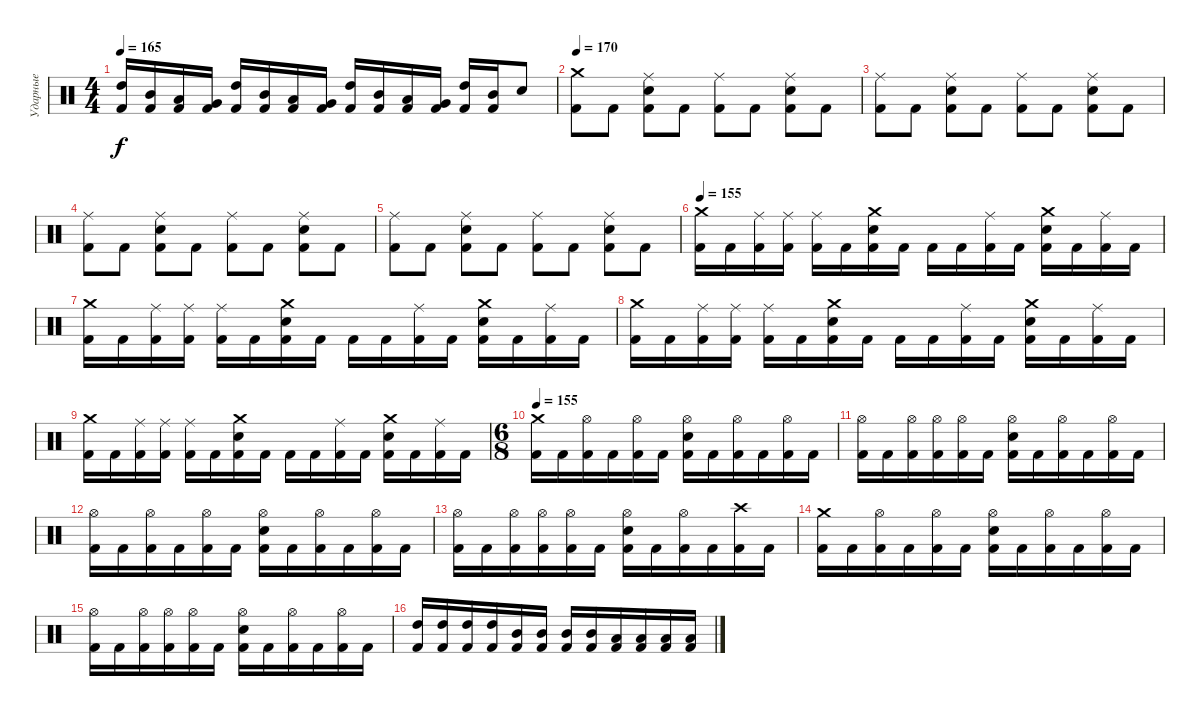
\track ("Ударные" "Ударные") {instrument percussion}
\staff {score}
\articulation defaults
\ts (4 4)
\tempo 165
\clef neutral
\ks c
("Kick (hit) 2" "High Tom (hit)").16{dy f} ("Kick (hit) 2" "Mid Tom (hit)").16 ("Kick (hit) 2" "Low Tom (hit)").16 ("Kick (hit) 2" "Very Low Tom (hit)").16 ("Kick (hit) 2" "High Tom (hit)").16 ("Kick (hit) 2" "Mid Tom (hit)").16 ("Kick (hit) 2" "Low Tom (hit)").16 ("Kick (hit) 2" "Very Low Tom (hit)").16 ("Kick (hit) 2" "High Tom (hit)").16 ("Kick (hit) 2" "Mid Tom (hit)").16 ("Kick (hit) 2" "Low Tom (hit)").16 ("Kick (hit) 2" "Very Low Tom (hit)").16 ("Kick (hit) 2" "High Tom (hit)").16 ("Kick (hit) 2" "Mid Tom (hit)").16 "Electric Snare (hit)".8 |
\tempo 170
("Kick (hit) 2" "Crash medium (hit)").8 "Kick (hit) 2".8 ("Kick (hit) 2" "Electric Snare (hit)" "Ride (middle)").8 "Kick (hit) 2".8 ("Kick (hit) 2" "Ride (middle)").8 "Kick (hit) 2".8 ("Kick (hit) 2" "Electric Snare (hit)" "Ride (middle)").8 "Kick (hit) 2".8 |
("Kick (hit) 2" "Ride (middle)").8 "Kick (hit) 2".8 ("Kick (hit) 2" "Electric Snare (hit)" "Ride (middle)").8 "Kick (hit) 2".8 ("Kick (hit) 2" "Ride (middle)").8 "Kick (hit) 2".8 ("Kick (hit) 2" "Electric Snare (hit)" "Ride (middle)").8 "Kick (hit) 2".8 |
("Kick (hit) 2" "Ride (middle)").8 "Kick (hit) 2".8 ("Kick (hit) 2" "Electric Snare (hit)" "Ride (middle)").8 "Kick (hit) 2".8 ("Kick (hit) 2" "Ride (middle)").8 "Kick (hit) 2".8 ("Kick (hit) 2" "Electric Snare (hit)" "Ride (middle)").8 "Kick (hit) 2".8 |
("Kick (hit) 2" "Ride (middle)").8 "Kick (hit) 2".8 ("Kick (hit) 2" "Electric Snare (hit)" "Ride (middle)").8 "Kick (hit) 2".8 ("Kick (hit) 2" "Ride (middle)").8 "Kick (hit) 2".8 ("Kick (hit) 2" "Electric Snare (hit)" "Ride (middle)").8 "Kick (hit) 2".8 |
\tempo 155
("Kick (hit) 2" "Crash medium (hit)").16 "Kick (hit) 2".16 ("Kick (hit) 2" "Ride (middle)").16 ("Kick (hit) 2" "Ride (middle)").16 ("Kick (hit) 2" "Ride (middle)").16 "Kick (hit) 2".16 ("Kick (hit) 2" "Electric Snare (hit)" "Crash medium (hit)").16 "Kick (hit) 2".16 "Kick (hit) 2".16 "Kick (hit) 2".16 ("Kick (hit) 2" "Ride (middle)").16 "Kick (hit) 2".16 ("Kick (hit) 2" "Electric Snare (hit)" "Crash medium (hit)").16 "Kick (hit) 2".16 ("Kick (hit) 2" "Ride (middle)").16 "Kick (hit) 2".16 |
("Kick (hit) 2" "Crash medium (hit)").16 "Kick (hit) 2".16 ("Kick (hit) 2" "Ride (middle)").16 ("Kick (hit) 2" "Ride (middle)").16 ("Kick (hit) 2" "Ride (middle)").16 "Kick (hit) 2".16 ("Kick (hit) 2" "Electric Snare (hit)" "Crash medium (hit)").16 "Kick (hit) 2".16 "Kick (hit) 2".16 "Kick (hit) 2".16 ("Kick (hit) 2" "Ride (middle)").16 "Kick (hit) 2".16 ("Kick (hit) 2" "Electric Snare (hit)" "Crash medium (hit)").16 "Kick (hit) 2".16 ("Kick (hit) 2" "Ride (middle)").16 "Kick (hit) 2".16 |
("Kick (hit) 2" "Crash medium (hit)").16 "Kick (hit) 2".16 ("Kick (hit) 2" "Ride (middle)").16 ("Kick (hit) 2" "Ride (middle)").16 ("Kick (hit) 2" "Ride (middle)").16 "Kick (hit) 2".16 ("Kick (hit) 2" "Electric Snare (hit)" "Crash medium (hit)").16 "Kick (hit) 2".16 "Kick (hit) 2".16 "Kick (hit) 2".16 ("Kick (hit) 2" "Ride (middle)").16 "Kick (hit) 2".16 ("Kick (hit) 2" "Electric Snare (hit)" "Crash medium (hit)").16 "Kick (hit) 2".16 ("Kick (hit) 2" "Ride (middle)").16 "Kick (hit) 2".16 |
("Kick (hit) 2" "Crash medium (hit)").16 "Kick (hit) 2".16 ("Kick (hit) 2" "Ride (middle)").16 ("Kick (hit) 2" "Ride (middle)").16 ("Kick (hit) 2" "Ride (middle)").16 "Kick (hit) 2".16 ("Kick (hit) 2" "Electric Snare (hit)" "Crash medium (hit)").16 "Kick (hit) 2".16 "Kick (hit) 2".16 "Kick (hit) 2".16 ("Kick (hit) 2" "Ride (middle)").16 "Kick (hit) 2".16 ("Kick (hit) 2" "Electric Snare (hit)" "Crash medium (hit)").16 "Kick (hit) 2".16 ("Kick (hit) 2" "Ride (middle)").16 "Kick (hit) 2".16 |
\ts (6 8)
\tempo 155
("Kick (hit) 2" "Crash medium (hit)").16 "Kick (hit) 2".16 ("Kick (hit) 2" "Hi-Hat (open)").16 "Kick (hit) 2".16 ("Kick (hit) 2" "Hi-Hat (open)").16 "Kick (hit) 2".16 ("Kick (hit) 2" "Electric Snare (hit)" "Hi-Hat (open)").16 "Kick (hit) 2".16 ("Kick (hit) 2" "Hi-Hat (open)").16 "Kick (hit) 2".16 ("Kick (hit) 2" "Hi-Hat (open)").16 "Kick (hit) 2".16 |
("Kick (hit) 2" "Hi-Hat (open)").16 "Kick (hit) 2".16 ("Kick (hit) 2" "Hi-Hat (open)").16 ("Kick (hit) 2" "Hi-Hat (open)").16 ("Kick (hit) 2" "Hi-Hat (open)").16 "Kick (hit) 2".16 ("Kick (hit) 2" "Electric Snare (hit)" "Hi-Hat (open)").16 "Kick (hit) 2".16 ("Kick (hit) 2" "Hi-Hat (open)").16 "Kick (hit) 2".16 ("Kick (hit) 2" "Hi-Hat (open)").16 "Kick (hit) 2".16 |
("Kick (hit) 2" "Hi-Hat (open)").16 "Kick (hit) 2".16 ("Kick (hit) 2" "Hi-Hat (open)").16 "Kick (hit) 2".16 ("Kick (hit) 2" "Hi-Hat (open)").16 "Kick (hit) 2".16 ("Kick (hit) 2" "Electric Snare (hit)" "Hi-Hat (open)").16 "Kick (hit) 2".16 ("Kick (hit) 2" "Hi-Hat (open)").16 "Kick (hit) 2".16 ("Kick (hit) 2" "Hi-Hat (open)").16 "Kick (hit) 2".16 |
("Kick (hit) 2" "Hi-Hat (open)").16 "Kick (hit) 2".16 ("Kick (hit) 2" "Hi-Hat (open)").16 ("Kick (hit) 2" "Hi-Hat (open)").16 ("Kick (hit) 2" "Hi-Hat (open)").16 "Kick (hit) 2".16 ("Kick (hit) 2" "Electric Snare (hit)" "Hi-Hat (open)").16 "Kick (hit) 2".16 ("Kick (hit) 2" "Hi-Hat (open)").16 "Kick (hit) 2".16 ("Kick (hit) 2" "Crash high (hit)").16 "Kick (hit) 2".16 |
("Kick (hit) 2" "Crash medium (hit)").16 "Kick (hit) 2".16 ("Kick (hit) 2" "Hi-Hat (open)").16 "Kick (hit) 2".16 ("Kick (hit) 2" "Hi-Hat (open)").16 "Kick (hit) 2".16 ("Kick (hit) 2" "Electric Snare (hit)" "Hi-Hat (open)").16 "Kick (hit) 2".16 ("Kick (hit) 2" "Hi-Hat (open)").16 "Kick (hit) 2".16 ("Kick (hit) 2" "Hi-Hat (open)").16 "Kick (hit) 2".16 |
("Kick (hit) 2" "Hi-Hat (open)").16 "Kick (hit) 2".16 ("Kick (hit) 2" "Hi-Hat (open)").16 ("Kick (hit) 2" "Hi-Hat (open)").16 ("Kick (hit) 2" "Hi-Hat (open)").16 "Kick (hit) 2".16 ("Kick (hit) 2" "Electric Snare (hit)" "Hi-Hat (open)").16 "Kick (hit) 2".16 ("Kick (hit) 2" "Hi-Hat (open)").16 "Kick (hit) 2".16 ("Kick (hit) 2" "Hi-Hat (open)").16 "Kick (hit) 2".16 |
("Kick (hit) 2" "High Tom (hit)").16 ("Kick (hit) 2" "High Tom (hit)").16 ("Kick (hit) 2" "High Tom (hit)").16 ("Kick (hit) 2" "High Tom (hit)").16 ("Kick (hit) 2" "Mid Tom (hit)").16 ("Kick (hit) 2" "Mid Tom (hit)").16 ("Kick (hit) 2" "Mid Tom (hit)").16 ("Kick (hit) 2" "Mid Tom (hit)").16 ("Kick (hit) 2" "Low Tom (hit)").16 ("Kick (hit) 2" "Low Tom (hit)").16 ("Kick (hit) 2" "Low Tom (hit)").16 ("Kick (hit) 2" "Low Tom (hit)").16
